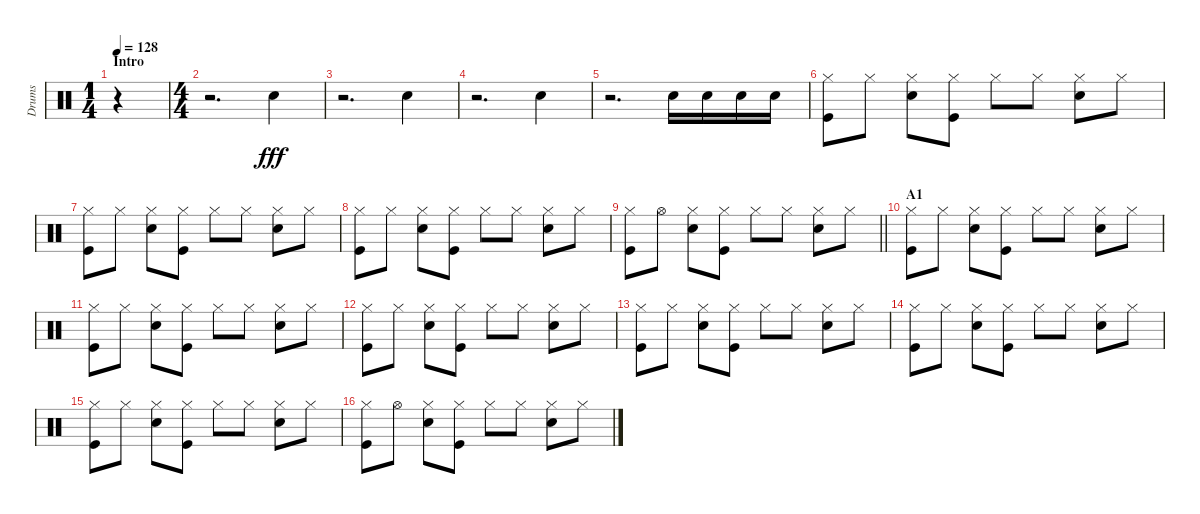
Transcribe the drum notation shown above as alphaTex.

\track ("Drums" "Drums") {instrument percussion}
\staff {score}
\articulation defaults
\ts (1 4)
\section ("" "Intro")
\tempo 128
\clef neutral
\ks c
r.4{dy fff} |
\ts (4 4)
r.2{d} "Snare (hit) 2".4 |
r.2{d} "Snare (hit) 2".4 |
r.2{d} "Snare (hit) 2".4 |
r.2{d} "Snare (hit) 2".16 "Snare (hit) 2".16 "Snare (hit) 2".16 "Snare (hit) 2".16 |
("Hi-Hat (closed)" "Kick (hit)").8 "Hi-Hat (closed)".8 ("Hi-Hat (closed)" "Snare (hit) 2").8 ("Hi-Hat (closed)" "Kick (hit)").8 "Hi-Hat (closed)".8 "Hi-Hat (closed)".8 ("Hi-Hat (closed)" "Snare (hit) 2").8 "Hi-Hat (closed)".8 |
("Hi-Hat (closed)" "Kick (hit)").8 "Hi-Hat (closed)".8 ("Hi-Hat (closed)" "Snare (hit) 2").8 ("Hi-Hat (closed)" "Kick (hit)").8 "Hi-Hat (closed)".8 "Hi-Hat (closed)".8 ("Hi-Hat (closed)" "Snare (hit) 2").8 "Hi-Hat (closed)".8 |
("Hi-Hat (closed)" "Kick (hit)").8 "Hi-Hat (closed)".8 ("Hi-Hat (closed)" "Snare (hit) 2").8 ("Hi-Hat (closed)" "Kick (hit)").8 "Hi-Hat (closed)".8 "Hi-Hat (closed)".8 ("Hi-Hat (closed)" "Snare (hit) 2").8 "Hi-Hat (closed)".8 |
\barLineRight lightlight
("Hi-Hat (closed)" "Kick (hit)").8 "Hi-Hat (open)".8 ("Hi-Hat (closed)" "Snare (hit) 2").8 ("Hi-Hat (closed)" "Kick (hit)").8 "Hi-Hat (closed)".8 "Hi-Hat (closed)".8 ("Hi-Hat (closed)" "Snare (hit) 2").8 "Hi-Hat (closed)".8 |
\section ("" "A1")
("Hi-Hat (closed)" "Kick (hit)").8 "Hi-Hat (closed)".8 ("Hi-Hat (closed)" "Snare (hit) 2").8 ("Hi-Hat (closed)" "Kick (hit)").8 "Hi-Hat (closed)".8 "Hi-Hat (closed)".8 ("Hi-Hat (closed)" "Snare (hit) 2").8 "Hi-Hat (closed)".8 |
("Hi-Hat (closed)" "Kick (hit)").8 "Hi-Hat (closed)".8 ("Hi-Hat (closed)" "Snare (hit) 2").8 ("Hi-Hat (closed)" "Kick (hit)").8 "Hi-Hat (closed)".8 "Hi-Hat (closed)".8 ("Hi-Hat (closed)" "Snare (hit) 2").8 "Hi-Hat (closed)".8 |
("Hi-Hat (closed)" "Kick (hit)").8 "Hi-Hat (closed)".8 ("Hi-Hat (closed)" "Snare (hit) 2").8 ("Hi-Hat (closed)" "Kick (hit)").8 "Hi-Hat (closed)".8 "Hi-Hat (closed)".8 ("Hi-Hat (closed)" "Snare (hit) 2").8 "Hi-Hat (closed)".8 |
("Hi-Hat (closed)" "Kick (hit)").8 "Hi-Hat (closed)".8 ("Hi-Hat (closed)" "Snare (hit) 2").8 ("Hi-Hat (closed)" "Kick (hit)").8 "Hi-Hat (closed)".8 "Hi-Hat (closed)".8 ("Hi-Hat (closed)" "Snare (hit) 2").8 "Hi-Hat (closed)".8 |
("Hi-Hat (closed)" "Kick (hit)").8 "Hi-Hat (closed)".8 ("Hi-Hat (closed)" "Snare (hit) 2").8 ("Hi-Hat (closed)" "Kick (hit)").8 "Hi-Hat (closed)".8 "Hi-Hat (closed)".8 ("Hi-Hat (closed)" "Snare (hit) 2").8 "Hi-Hat (closed)".8 |
("Hi-Hat (closed)" "Kick (hit)").8 "Hi-Hat (closed)".8 ("Hi-Hat (closed)" "Snare (hit) 2").8 ("Hi-Hat (closed)" "Kick (hit)").8 "Hi-Hat (closed)".8 "Hi-Hat (closed)".8 ("Hi-Hat (closed)" "Snare (hit) 2").8 "Hi-Hat (closed)".8 |
("Hi-Hat (closed)" "Kick (hit)").8 "Hi-Hat (open)".8 ("Hi-Hat (closed)" "Snare (hit) 2").8 ("Hi-Hat (closed)" "Kick (hit)").8 "Hi-Hat (closed)".8 "Hi-Hat (closed)".8 ("Hi-Hat (closed)" "Snare (hit) 2").8 "Hi-Hat (closed)".8
